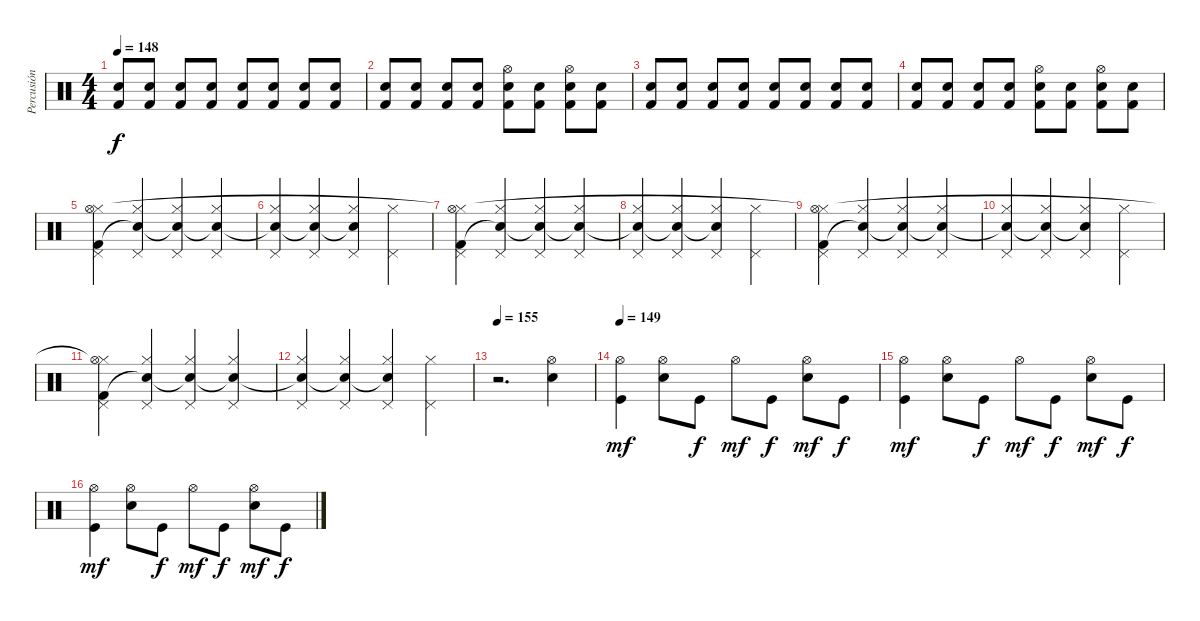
\track ("Percusión" "Percusión") {instrument percussion}
\staff {score}
\articulation defaults
\ts (4 4)
\tempo 148
\clef neutral
\ks c
("Kick (hit) 2" "Electric Snare (hit)").8{dy f} ("Kick (hit) 2" "Electric Snare (hit)").8 ("Kick (hit) 2" "Electric Snare (hit)").8 ("Kick (hit) 2" "Electric Snare (hit)").8 ("Kick (hit) 2" "Electric Snare (hit)").8 ("Kick (hit) 2" "Electric Snare (hit)").8 ("Kick (hit) 2" "Electric Snare (hit)").8 ("Kick (hit) 2" "Electric Snare (hit)").8 |
("Kick (hit) 2" "Electric Snare (hit)").8 ("Kick (hit) 2" "Electric Snare (hit)").8 ("Kick (hit) 2" "Electric Snare (hit)").8 ("Kick (hit) 2" "Electric Snare (hit)").8 ("Kick (hit) 2" "Electric Snare (hit)" "Hi-Hat (open)").8 ("Kick (hit) 2" "Electric Snare (hit)").8 ("Kick (hit) 2" "Electric Snare (hit)" "Hi-Hat (open)").8 ("Kick (hit) 2" "Electric Snare (hit)").8 |
("Kick (hit) 2" "Electric Snare (hit)").8 ("Kick (hit) 2" "Electric Snare (hit)").8 ("Kick (hit) 2" "Electric Snare (hit)").8 ("Kick (hit) 2" "Electric Snare (hit)").8 ("Kick (hit) 2" "Electric Snare (hit)").8 ("Kick (hit) 2" "Electric Snare (hit)").8 ("Kick (hit) 2" "Electric Snare (hit)").8 ("Kick (hit) 2" "Electric Snare (hit)").8 |
("Kick (hit) 2" "Electric Snare (hit)").8 ("Kick (hit) 2" "Electric Snare (hit)").8 ("Kick (hit) 2" "Electric Snare (hit)").8 ("Kick (hit) 2" "Electric Snare (hit)").8 ("Kick (hit) 2" "Electric Snare (hit)" "Hi-Hat (open)").8 ("Kick (hit) 2" "Electric Snare (hit)").8 ("Kick (hit) 2" "Electric Snare (hit)" "Hi-Hat (open)").8 ("Kick (hit) 2" "Electric Snare (hit)").8 |
("Pedal Hi-Hat (hit)" "Hi-Hat (closed)" "Kick (hit) 2" "Hi-Hat (open)").4 ("Pedal Hi-Hat (hit)" "Hi-Hat (closed)" "Snare (hit)"{t}).4 ("Pedal Hi-Hat (hit)" "Hi-Hat (closed)" "Snare (hit)"{t}).4 ("Pedal Hi-Hat (hit)" "Hi-Hat (closed)" "Snare (hit)"{t}).4 |
("Pedal Hi-Hat (hit)" "Hi-Hat (closed)" "Snare (hit)"{t}).4 ("Pedal Hi-Hat (hit)" "Hi-Hat (closed)" "Snare (hit)"{t}).4 ("Pedal Hi-Hat (hit)" "Hi-Hat (closed)" "Snare (hit)"{t}).4 ("Pedal Hi-Hat (hit)" "Hi-Hat (closed)").4 |
("Pedal Hi-Hat (hit)" "Hi-Hat (closed)" "Kick (hit) 2" "Hi-Hat (open)"{t}).4 ("Pedal Hi-Hat (hit)" "Hi-Hat (closed)" "Snare (hit)"{t}).4 ("Pedal Hi-Hat (hit)" "Hi-Hat (closed)" "Snare (hit)"{t}).4 ("Pedal Hi-Hat (hit)" "Hi-Hat (closed)" "Snare (hit)"{t}).4 |
("Pedal Hi-Hat (hit)" "Hi-Hat (closed)" "Snare (hit)"{t}).4 ("Pedal Hi-Hat (hit)" "Hi-Hat (closed)" "Snare (hit)"{t}).4 ("Pedal Hi-Hat (hit)" "Hi-Hat (closed)" "Snare (hit)"{t}).4 ("Pedal Hi-Hat (hit)" "Hi-Hat (closed)").4 |
("Pedal Hi-Hat (hit)" "Hi-Hat (closed)" "Kick (hit) 2" "Hi-Hat (open)"{t}).4 ("Pedal Hi-Hat (hit)" "Hi-Hat (closed)" "Snare (hit)"{t}).4 ("Pedal Hi-Hat (hit)" "Hi-Hat (closed)" "Snare (hit)"{t}).4 ("Pedal Hi-Hat (hit)" "Hi-Hat (closed)" "Snare (hit)"{t}).4 |
("Pedal Hi-Hat (hit)" "Hi-Hat (closed)" "Snare (hit)"{t}).4 ("Pedal Hi-Hat (hit)" "Hi-Hat (closed)" "Snare (hit)"{t}).4 ("Pedal Hi-Hat (hit)" "Hi-Hat (closed)" "Snare (hit)"{t}).4 ("Pedal Hi-Hat (hit)" "Hi-Hat (closed)").4 |
("Pedal Hi-Hat (hit)" "Hi-Hat (closed)" "Kick (hit) 2" "Hi-Hat (open)"{t}).4 ("Pedal Hi-Hat (hit)" "Hi-Hat (closed)" "Snare (hit)"{t}).4 ("Pedal Hi-Hat (hit)" "Hi-Hat (closed)" "Snare (hit)"{t}).4 ("Pedal Hi-Hat (hit)" "Hi-Hat (closed)" "Snare (hit)"{t}).4 |
("Pedal Hi-Hat (hit)" "Hi-Hat (closed)" "Snare (hit)"{t}).4 ("Pedal Hi-Hat (hit)" "Hi-Hat (closed)" "Snare (hit)"{t}).4 ("Pedal Hi-Hat (hit)" "Hi-Hat (closed)" "Snare (hit)"{t}).4 ("Pedal Hi-Hat (hit)" "Hi-Hat (closed)").4 |
\tempo 155
r.2{d} ("Electric Snare (hit)" "Hi-Hat (open)").4 |
\tempo 149
("Hi-Hat (open)" "Kick (hit)").4{dy mf} ("Hi-Hat (open)" "Electric Snare (hit)").8 "Kick (hit)".8{dy f} "Hi-Hat (open)".8{dy mf} "Kick (hit)".8{dy f} ("Hi-Hat (open)" "Electric Snare (hit)").8{dy mf} "Kick (hit)".8{dy f} |
("Hi-Hat (open)" "Kick (hit)").4{dy mf} ("Hi-Hat (open)" "Electric Snare (hit)").8 "Kick (hit)".8{dy f} "Hi-Hat (open)".8{dy mf} "Kick (hit)".8{dy f} ("Hi-Hat (open)" "Electric Snare (hit)").8{dy mf} "Kick (hit)".8{dy f} |
("Hi-Hat (open)" "Kick (hit)").4{dy mf} ("Hi-Hat (open)" "Electric Snare (hit)").8 "Kick (hit)".8{dy f} "Hi-Hat (open)".8{dy mf} "Kick (hit)".8{dy f} ("Hi-Hat (open)" "Electric Snare (hit)").8{dy mf} "Kick (hit)".8{dy f}
